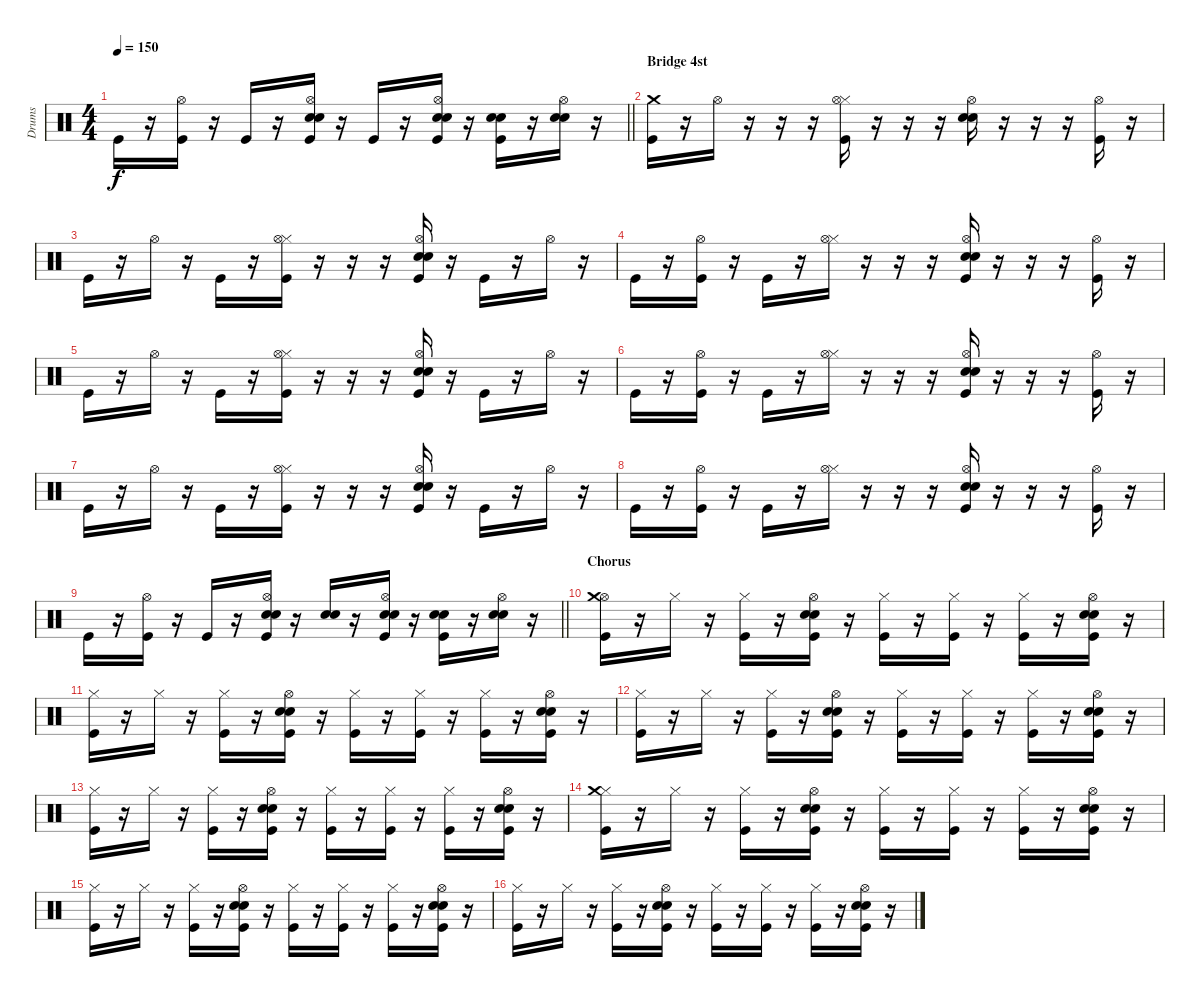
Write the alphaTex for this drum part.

\track ("Drums" "Drums") {instrument percussion}
\staff {score}
\articulation defaults
\ts (4 4)
\tempo 150
\clef neutral
\barLineRight lightlight
\ks c "Kick (hit)".16{dy f}
r.16 ("Kick (hit)" "Hi-Hat (open)").16 r.16 "Kick (hit)".16 r.16 ("Electric Snare (hit)" "Snare (hit) 2" "Kick (hit)" "Hi-Hat (open)").16 r.16 "Kick (hit)".16 r.16 ("Electric Snare (hit)" "Snare (hit) 2" "Kick (hit)" "Hi-Hat (open)").16 r.16 ("Electric Snare (hit)" "Snare (hit) 2" "Kick (hit)").16 r.16 ("Electric Snare (hit)" "Snare (hit) 2" "Hi-Hat (open)").16 r.16 |
\section ("" "Bridge 4st")
("Kick (hit)" "Crash medium (hit)").16 r.16 "Hi-Hat (open)".16 r.16 r.16 r.16 ("Hi-Hat (closed)" "Kick (hit)" "Hi-Hat (open)").16 r.16 r.16 r.16 ("Electric Snare (hit)" "Snare (hit) 2" "Hi-Hat (open)").16 r.16 r.16 r.16 ("Kick (hit)" "Hi-Hat (open)").16 r.16 |
"Kick (hit)".16 r.16 "Hi-Hat (open)".16 r.16 "Kick (hit)".16 r.16 ("Hi-Hat (closed)" "Kick (hit)" "Hi-Hat (open)").16 r.16 r.16 r.16 ("Electric Snare (hit)" "Snare (hit) 2" "Kick (hit)" "Hi-Hat (open)").16 r.16 "Kick (hit)".16 r.16 "Hi-Hat (open)".16 r.16 |
"Kick (hit)".16 r.16 ("Kick (hit)" "Hi-Hat (open)").16 r.16 "Kick (hit)".16 r.16 ("Hi-Hat (closed)" "Hi-Hat (open)").16 r.16 r.16 r.16 ("Electric Snare (hit)" "Snare (hit) 2" "Kick (hit)" "Hi-Hat (open)").16 r.16 r.16 r.16 ("Kick (hit)" "Hi-Hat (open)").16 r.16 |
"Kick (hit)".16 r.16 "Hi-Hat (open)".16 r.16 "Kick (hit)".16 r.16 ("Hi-Hat (closed)" "Kick (hit)" "Hi-Hat (open)").16 r.16 r.16 r.16 ("Electric Snare (hit)" "Snare (hit) 2" "Kick (hit)" "Hi-Hat (open)").16 r.16 "Kick (hit)".16 r.16 "Hi-Hat (open)".16 r.16 |
"Kick (hit)".16 r.16 ("Kick (hit)" "Hi-Hat (open)").16 r.16 "Kick (hit)".16 r.16 ("Hi-Hat (closed)" "Hi-Hat (open)").16 r.16 r.16 r.16 ("Electric Snare (hit)" "Snare (hit) 2" "Kick (hit)" "Hi-Hat (open)").16 r.16 r.16 r.16 ("Kick (hit)" "Hi-Hat (open)").16 r.16 |
"Kick (hit)".16 r.16 "Hi-Hat (open)".16 r.16 "Kick (hit)".16 r.16 ("Hi-Hat (closed)" "Kick (hit)" "Hi-Hat (open)").16 r.16 r.16 r.16 ("Electric Snare (hit)" "Snare (hit) 2" "Kick (hit)" "Hi-Hat (open)").16 r.16 "Kick (hit)".16 r.16 "Hi-Hat (open)".16 r.16 |
"Kick (hit)".16 r.16 ("Kick (hit)" "Hi-Hat (open)").16 r.16 "Kick (hit)".16 r.16 ("Hi-Hat (closed)" "Hi-Hat (open)").16 r.16 r.16 r.16 ("Electric Snare (hit)" "Snare (hit) 2" "Kick (hit)" "Hi-Hat (open)").16 r.16 r.16 r.16 ("Kick (hit)" "Hi-Hat (open)").16 r.16 |
\barLineRight lightlight "Kick (hit)".16
r.16 ("Kick (hit)" "Hi-Hat (open)").16 r.16 "Kick (hit)".16 r.16 ("Electric Snare (hit)" "Snare (hit) 2" "Kick (hit)" "Hi-Hat (open)").16 r.16 ("Electric Snare (hit)" "Snare (hit) 2").16 r.16 ("Electric Snare (hit)" "Snare (hit) 2" "Kick (hit)" "Hi-Hat (open)").16 r.16 ("Electric Snare (hit)" "Snare (hit) 2" "Kick (hit)").16 r.16 ("Electric Snare (hit)" "Snare (hit) 2" "Hi-Hat (open)").16 r.16 |
\section ("" "Chorus")
("Hi-Hat (open)" "Kick (hit)" "Crash medium (hit)").16 r.16 "Hi-Hat (closed)".16 r.16 ("Hi-Hat (closed)" "Kick (hit)").16 r.16 ("Hi-Hat (open)" "Electric Snare (hit)" "Snare (hit) 2" "Kick (hit)").16 r.16 ("Hi-Hat (closed)" "Kick (hit)").16 r.16 ("Hi-Hat (closed)" "Kick (hit)").16 r.16 ("Hi-Hat (closed)" "Kick (hit)").16 r.16 ("Hi-Hat (open)" "Electric Snare (hit)" "Snare (hit) 2" "Kick (hit)").16 r.16 |
("Hi-Hat (closed)" "Kick (hit)").16 r.16 "Hi-Hat (closed)".16 r.16 ("Hi-Hat (closed)" "Kick (hit)").16 r.16 ("Hi-Hat (open)" "Electric Snare (hit)" "Snare (hit) 2" "Kick (hit)").16 r.16 ("Hi-Hat (closed)" "Kick (hit)").16 r.16 ("Hi-Hat (closed)" "Kick (hit)").16 r.16 ("Hi-Hat (closed)" "Kick (hit)").16 r.16 ("Hi-Hat (open)" "Electric Snare (hit)" "Snare (hit) 2" "Kick (hit)").16 r.16 |
("Hi-Hat (closed)" "Kick (hit)").16 r.16 "Hi-Hat (closed)".16 r.16 ("Hi-Hat (closed)" "Kick (hit)").16 r.16 ("Hi-Hat (open)" "Electric Snare (hit)" "Snare (hit) 2" "Kick (hit)").16 r.16 ("Hi-Hat (closed)" "Kick (hit)").16 r.16 ("Hi-Hat (closed)" "Kick (hit)").16 r.16 ("Hi-Hat (closed)" "Kick (hit)").16 r.16 ("Hi-Hat (open)" "Electric Snare (hit)" "Snare (hit) 2" "Kick (hit)").16 r.16 |
("Hi-Hat (closed)" "Kick (hit)").16 r.16 "Hi-Hat (closed)".16 r.16 ("Hi-Hat (closed)" "Kick (hit)").16 r.16 ("Hi-Hat (open)" "Electric Snare (hit)" "Snare (hit) 2" "Kick (hit)").16 r.16 ("Hi-Hat (closed)" "Kick (hit)").16 r.16 ("Hi-Hat (closed)" "Kick (hit)").16 r.16 ("Hi-Hat (closed)" "Kick (hit)").16 r.16 ("Hi-Hat (open)" "Electric Snare (hit)" "Snare (hit) 2" "Kick (hit)").16 r.16 |
("Hi-Hat (closed)" "Kick (hit)" "Crash medium (hit)").16 r.16 "Hi-Hat (closed)".16 r.16 ("Hi-Hat (closed)" "Kick (hit)").16 r.16 ("Hi-Hat (open)" "Electric Snare (hit)" "Snare (hit) 2" "Kick (hit)").16 r.16 ("Hi-Hat (closed)" "Kick (hit)").16 r.16 ("Hi-Hat (closed)" "Kick (hit)").16 r.16 ("Hi-Hat (closed)" "Kick (hit)").16 r.16 ("Hi-Hat (open)" "Electric Snare (hit)" "Snare (hit) 2" "Kick (hit)").16 r.16 |
("Hi-Hat (closed)" "Kick (hit)").16 r.16 "Hi-Hat (closed)".16 r.16 ("Hi-Hat (closed)" "Kick (hit)").16 r.16 ("Hi-Hat (open)" "Electric Snare (hit)" "Snare (hit) 2" "Kick (hit)").16 r.16 ("Hi-Hat (closed)" "Kick (hit)").16 r.16 ("Hi-Hat (closed)" "Kick (hit)").16 r.16 ("Hi-Hat (closed)" "Kick (hit)").16 r.16 ("Hi-Hat (open)" "Electric Snare (hit)" "Snare (hit) 2" "Kick (hit)").16 r.16 |
("Hi-Hat (closed)" "Kick (hit)").16 r.16 "Hi-Hat (closed)".16 r.16 ("Hi-Hat (closed)" "Kick (hit)").16 r.16 ("Hi-Hat (open)" "Electric Snare (hit)" "Snare (hit) 2" "Kick (hit)").16 r.16 ("Hi-Hat (closed)" "Kick (hit)").16 r.16 ("Hi-Hat (closed)" "Kick (hit)").16 r.16 ("Hi-Hat (closed)" "Kick (hit)").16 r.16 ("Hi-Hat (open)" "Electric Snare (hit)" "Snare (hit) 2" "Kick (hit)").16 r.16
